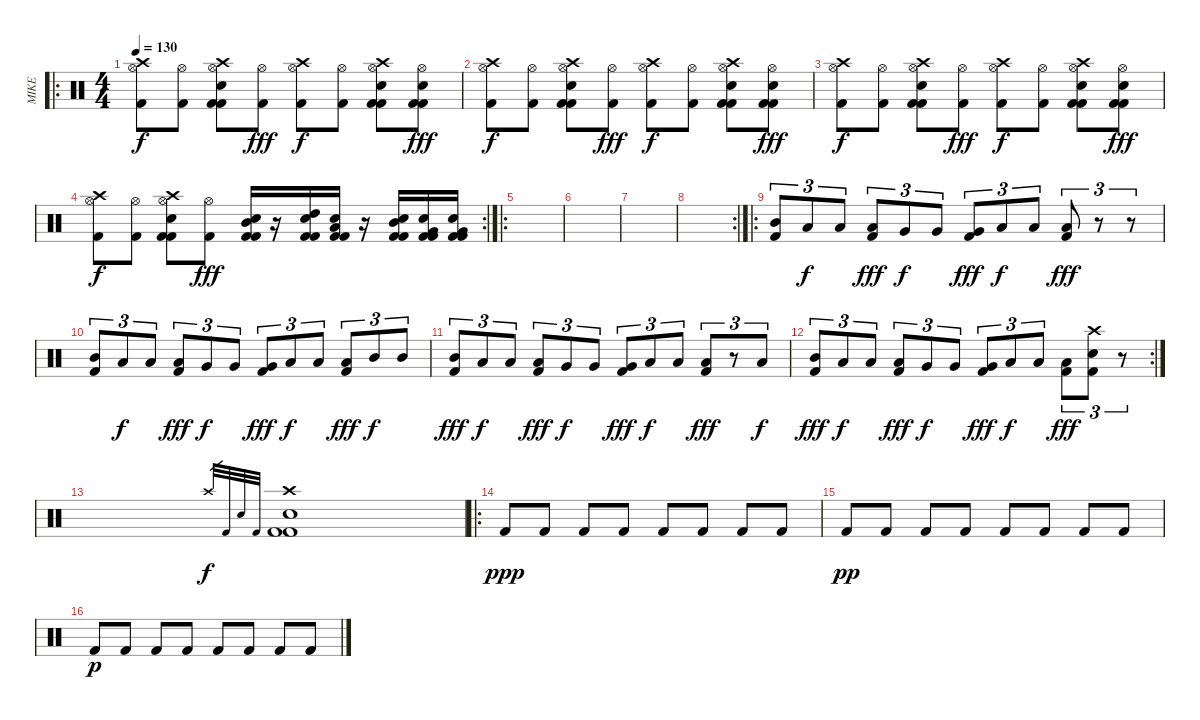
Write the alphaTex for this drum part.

\track ("MIKE" "MIKE") {instrument percussion}
\staff {score}
\articulation defaults
\ro
\ts (4 4)
\tempo 130
\clef neutral
\ks c
("Hi-Hat (open)" "Crash high (hit)" "Kick (hit) 2").8{dy f} ("Hi-Hat (open)" "Kick (hit) 2").8 ("Hi-Hat (open)" "Crash high (hit)" "Kick (hit) 2" "Electric Snare (hit)" "Kick (hit) 2").8 ("Hi-Hat (open)" "Kick (hit) 2").8{dy fff} ("Hi-Hat (open)" "Crash high (hit)" "Kick (hit) 2").8{dy f} ("Hi-Hat (open)" "Kick (hit) 2").8 ("Hi-Hat (open)" "Crash high (hit)" "Kick (hit) 2" "Electric Snare (hit)" "Kick (hit) 2").8 ("Hi-Hat (open)" "Kick (hit) 2" "Electric Snare (hit)" "Kick (hit) 2").8{dy fff} |
("Hi-Hat (open)" "Crash high (hit)" "Kick (hit) 2").8{dy f} ("Hi-Hat (open)" "Kick (hit) 2").8 ("Hi-Hat (open)" "Crash high (hit)" "Kick (hit) 2" "Electric Snare (hit)" "Kick (hit) 2").8 ("Hi-Hat (open)" "Kick (hit) 2").8{dy fff} ("Hi-Hat (open)" "Crash high (hit)" "Kick (hit) 2").8{dy f} ("Hi-Hat (open)" "Kick (hit) 2").8 ("Hi-Hat (open)" "Crash high (hit)" "Kick (hit) 2" "Electric Snare (hit)" "Kick (hit) 2").8 ("Hi-Hat (open)" "Kick (hit) 2" "Electric Snare (hit)" "Kick (hit) 2").8{dy fff} |
("Hi-Hat (open)" "Crash high (hit)" "Kick (hit) 2").8{dy f} ("Hi-Hat (open)" "Kick (hit) 2").8 ("Hi-Hat (open)" "Crash high (hit)" "Kick (hit) 2" "Electric Snare (hit)" "Kick (hit) 2").8 ("Hi-Hat (open)" "Kick (hit) 2").8{dy fff} ("Hi-Hat (open)" "Crash high (hit)" "Kick (hit) 2").8{dy f} ("Hi-Hat (open)" "Kick (hit) 2").8 ("Hi-Hat (open)" "Crash high (hit)" "Kick (hit) 2" "Electric Snare (hit)" "Kick (hit) 2").8 ("Hi-Hat (open)" "Kick (hit) 2" "Electric Snare (hit)" "Kick (hit) 2").8{dy fff} |
\rc 2
("Hi-Hat (open)" "Crash high (hit)" "Kick (hit) 2").8{dy f} ("Hi-Hat (open)" "Kick (hit) 2").8 ("Hi-Hat (open)" "Crash high (hit)" "Kick (hit) 2" "Electric Snare (hit)" "Kick (hit) 2").8 ("Hi-Hat (open)" "Kick (hit) 2").8{dy fff} ("Mid Tom (hit)" "Kick (hit) 2" "Electric Snare (hit)" "Kick (hit) 2").16 r.16 ("High Tom (hit)" "Kick (hit) 2" "Electric Snare (hit)" "Kick (hit) 2").16 ("Low Tom (hit)" "Kick (hit) 2" "Electric Snare (hit)" "Kick (hit) 2").16 r.16 ("Mid Tom (hit)" "Kick (hit) 2" "Electric Snare (hit)" "Kick (hit) 2").16 ("Very Low Tom (hit)" "Kick (hit) 2" "Electric Snare (hit)" "Kick (hit) 2").16 ("Very Low Tom (hit)" "Kick (hit) 2" "Electric Snare (hit)" "Kick (hit) 2").16 |
\ro
|
|
|
\rc 2
|
\ro
("Mid Tom (hit)" "Kick (hit) 2").8{tu (3 2)} "Low Floor Tom (hit)".8{tu (3 2) dy f} "Low Floor Tom (hit)".8{tu (3 2)} ("Low Tom (hit)" "Kick (hit) 2").8{tu (3 2) dy fff} "Very Low Tom (hit)".8{tu (3 2) dy f} "Very Low Tom (hit)".8{tu (3 2)} ("Very Low Tom (hit)" "Kick (hit) 2").8{tu (3 2) dy fff} "Low Tom (hit)".8{tu (3 2) dy f} "Low Tom (hit)".8{tu (3 2)} ("Low Floor Tom (hit)" "Kick (hit) 2").8{tu (3 2) dy fff} r.8{tu (3 2)} r.8{tu (3 2)} |
("Mid Tom (hit)" "Kick (hit) 2").8{tu (3 2)} "Low Floor Tom (hit)".8{tu (3 2) dy f} "Low Floor Tom (hit)".8{tu (3 2)} ("Low Tom (hit)" "Kick (hit) 2").8{tu (3 2) dy fff} "Very Low Tom (hit)".8{tu (3 2) dy f} "Very Low Tom (hit)".8{tu (3 2)} ("Very Low Tom (hit)" "Kick (hit) 2").8{tu (3 2) dy fff} "Low Tom (hit)".8{tu (3 2) dy f} "Low Tom (hit)".8{tu (3 2)} ("Low Floor Tom (hit)" "Kick (hit) 2").8{tu (3 2) dy fff} "Mid Tom (hit)".8{tu (3 2) dy f} "Mid Tom (hit)".8{tu (3 2)} |
("Mid Tom (hit)" "Kick (hit) 2").8{tu (3 2) dy fff} "Low Floor Tom (hit)".8{tu (3 2) dy f} "Low Floor Tom (hit)".8{tu (3 2)} ("Low Tom (hit)" "Kick (hit) 2").8{tu (3 2) dy fff} "Very Low Tom (hit)".8{tu (3 2) dy f} "Very Low Tom (hit)".8{tu (3 2)} ("Very Low Tom (hit)" "Kick (hit) 2").8{tu (3 2) dy fff} "Low Tom (hit)".8{tu (3 2) dy f} "Low Tom (hit)".8{tu (3 2)} ("Low Floor Tom (hit)" "Kick (hit) 2").8{tu (3 2) dy fff} r.8{tu (3 2)} "Low Floor Tom (hit)".8{tu (3 2) dy f} |
\rc 2
("Mid Tom (hit)" "Kick (hit) 2").8{tu (3 2) dy fff} "Low Floor Tom (hit)".8{tu (3 2) dy f} "Low Floor Tom (hit)".8{tu (3 2)} ("Low Tom (hit)" "Kick (hit) 2").8{tu (3 2) dy fff} "Very Low Tom (hit)".8{tu (3 2) dy f} "Very Low Tom (hit)".8{tu (3 2)} ("Very Low Tom (hit)" "Kick (hit) 2").8{tu (3 2) dy fff} "Low Tom (hit)".8{tu (3 2) dy f} "Low Tom (hit)".8{tu (3 2)} ("Low Floor Tom (hit)" "Kick (hit) 2").8{tu (3 2) dy fff} ("Kick (hit) 2" "Electric Snare (hit)" "Crash high (hit)").8{tu (3 2)} r.8{tu (3 2)} |
"Crash high (hit)".32{gr dy f} "Kick (hit) 2".32{gr} "Electric Snare (hit)".32{gr} "Kick (hit) 2".32{gr} ("Crash high (hit)" "Kick (hit) 2" "Electric Snare (hit)" "Kick (hit) 2").1 |
\ro "Kick (hit) 2".8{dy ppp} "Kick (hit) 2".8 "Kick (hit) 2".8 "Kick (hit) 2".8 "Kick (hit) 2".8 "Kick (hit) 2".8 "Kick (hit) 2".8 "Kick (hit) 2".8
|
"Kick (hit) 2".8{dy pp} "Kick (hit) 2".8 "Kick (hit) 2".8 "Kick (hit) 2".8 "Kick (hit) 2".8 "Kick (hit) 2".8 "Kick (hit) 2".8 "Kick (hit) 2".8 |
"Kick (hit) 2".8{dy p} "Kick (hit) 2".8 "Kick (hit) 2".8 "Kick (hit) 2".8 "Kick (hit) 2".8 "Kick (hit) 2".8 "Kick (hit) 2".8 "Kick (hit) 2".8
